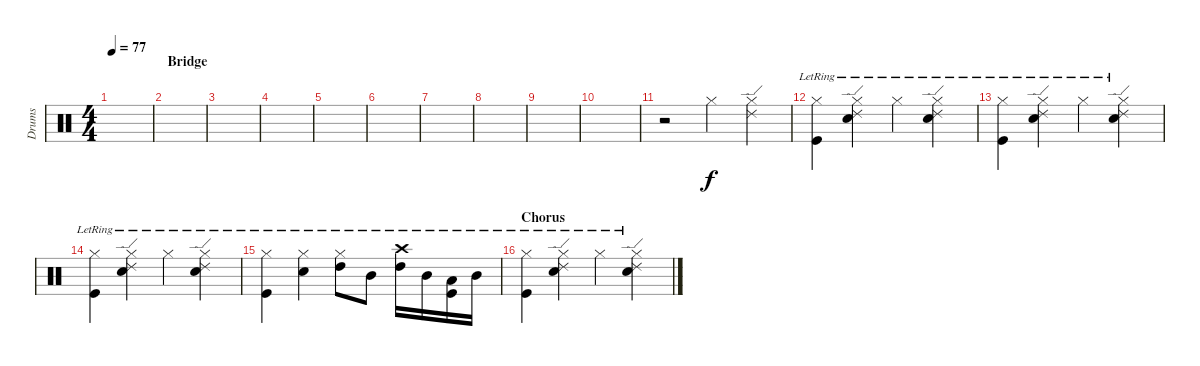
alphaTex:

\track ("Drums" "Drums") {instrument percussion}
\staff {score}
\articulation defaults
\ts (4 4)
\tempo 77
\clef neutral
\ks c
|
\section ("" "Bridge")
|
|
|
|
|
|
|
|
|
r.2 "Hi-Hat (closed)".4 ("Hi-Hat (closed)" "Ride (edge) 2").4 |
("Hi-Hat (closed)"{lr} "Kick (hit)"{lr}).4 ("Hi-Hat (closed)"{lr} "Snare (hit) 2"{lr} "Ride (edge) 2"{lr}).4 "Hi-Hat (closed)"{lr}.4 ("Hi-Hat (closed)"{lr} "Snare (hit) 2"{lr} "Ride (edge) 2"{lr}).4 |
("Hi-Hat (closed)"{lr} "Kick (hit)"{lr}).4 ("Hi-Hat (closed)"{lr} "Snare (hit) 2"{lr} "Ride (edge) 2"{lr}).4 "Hi-Hat (closed)"{lr}.4 ("Hi-Hat (closed)"{lr} "Snare (hit) 2"{lr} "Ride (edge) 2"{lr}).4 |
("Hi-Hat (closed)"{lr} "Kick (hit)"{lr}).4 ("Hi-Hat (closed)"{lr} "Snare (hit) 2"{lr} "Ride (edge) 2"{lr}).4 "Hi-Hat (closed)"{lr}.4 ("Hi-Hat (closed)"{lr} "Snare (hit) 2"{lr} "Ride (edge) 2"{lr}).4 |
("Hi-Hat (closed)"{lr} "Kick (hit)"{lr}).4 ("Hi-Hat (closed)"{lr} "Snare (hit) 2"{lr}).4 ("Hi-Hat (closed)"{lr} "High Tom (hit)"{lr}).8 "Mid Tom (hit)"{lr}.8 ("Crash high (hit)"{lr} "High Tom (hit)"{lr}).16 "Mid Tom (hit)"{lr}.16 ("Low Tom (hit)"{lr} "Kick (hit)"{lr}).16 "Mid Tom (hit)"{lr}.16 |
\section ("" "Chorus")
("Hi-Hat (closed)"{lr} "Kick (hit)"{lr}).4 ("Hi-Hat (closed)"{lr} "Snare (hit) 2"{lr} "Ride (edge) 2"{lr}).4 "Hi-Hat (closed)"{lr}.4 ("Hi-Hat (closed)"{lr} "Snare (hit) 2"{lr} "Ride (edge) 2"{lr}).4
